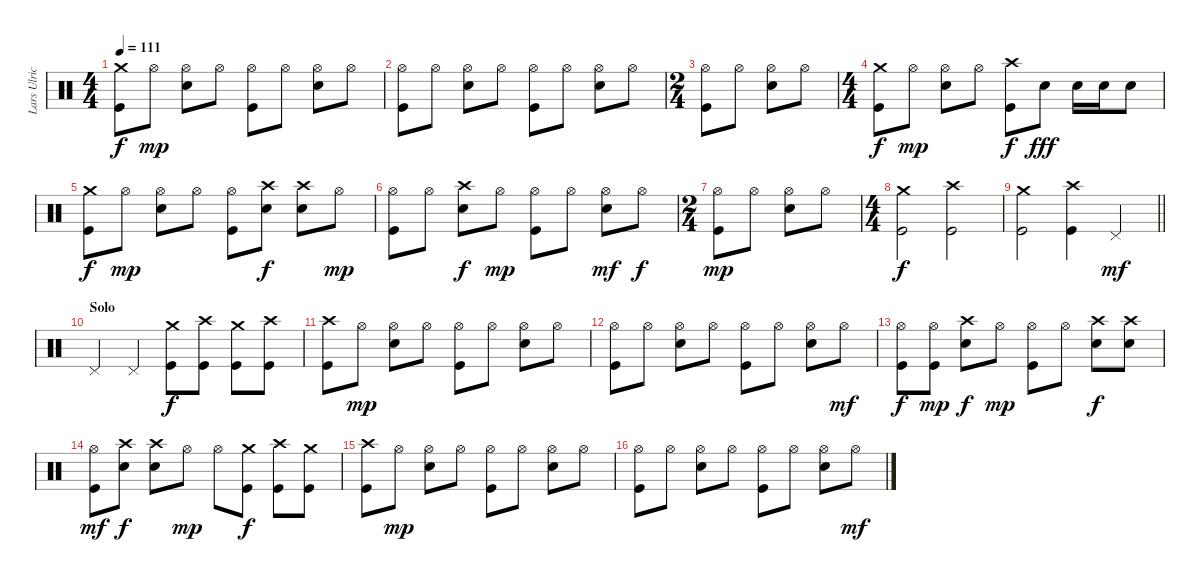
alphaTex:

\track ("Lars Ulrich (Drums)" "Lars Ulric") {instrument percussion}
\staff {score}
\articulation defaults
\ts (4 4)
\tempo 111
\clef neutral
\ks c
("Crash medium (hit)" "Kick (hit)").8{dy f} "Hi-Hat (open)".8{dy mp} ("Hi-Hat (open)" "Snare (hit) 2").8 "Hi-Hat (open)".8 ("Hi-Hat (open)" "Kick (hit)").8 "Hi-Hat (open)".8 ("Hi-Hat (open)" "Snare (hit) 2").8 "Hi-Hat (open)".8 |
("Hi-Hat (open)" "Kick (hit)").8 "Hi-Hat (open)".8 ("Hi-Hat (open)" "Snare (hit) 2").8 "Hi-Hat (open)".8 ("Hi-Hat (open)" "Kick (hit)").8 "Hi-Hat (open)".8 ("Hi-Hat (open)" "Snare (hit) 2").8 "Hi-Hat (open)".8 |
\ts (2 4)
("Hi-Hat (open)" "Kick (hit)").8 "Hi-Hat (open)".8 ("Hi-Hat (open)" "Snare (hit) 2").8 "Hi-Hat (open)".8 |
\ts (4 4)
("Crash medium (hit)" "Kick (hit)").8{dy f} "Hi-Hat (open)".8{dy mp} ("Hi-Hat (open)" "Snare (hit) 2").8 "Hi-Hat (open)".8 ("Crash high (hit)" "Kick (hit)").8{dy f} "Snare (hit) 2".8{dy fff} "Snare (hit) 2".16 "Snare (hit) 2".16 "Snare (hit) 2".8 |
("Crash medium (hit)" "Kick (hit)").8{dy f} "Hi-Hat (open)".8{dy mp} ("Hi-Hat (open)" "Snare (hit) 2").8 "Hi-Hat (open)".8 ("Hi-Hat (open)" "Kick (hit)").8 ("Crash high (hit)" "Snare (hit) 2").8{dy f} ("Crash high (hit)" "Snare (hit) 2").8 "Hi-Hat (open)".8{dy mp} |
("Hi-Hat (open)" "Kick (hit)").8 "Hi-Hat (open)".8 ("Crash high (hit)" "Snare (hit) 2").8{dy f} "Hi-Hat (open)".8{dy mp} ("Hi-Hat (open)" "Kick (hit)").8 "Hi-Hat (open)".8 ("Hi-Hat (open)" "Snare (hit) 2").8{dy mf} "Hi-Hat (open)".8{dy f} |
\ts (2 4)
("Hi-Hat (open)" "Kick (hit)").8{dy mp} "Hi-Hat (open)".8 ("Hi-Hat (open)" "Snare (hit) 2").8 "Hi-Hat (open)".8 |
\ts (4 4)
("Crash medium (hit)" "Kick (hit)").2{dy f} ("Crash high (hit)" "Kick (hit)").2 |
\barLineRight lightlight
("Crash medium (hit)" "Kick (hit)").2 ("Crash high (hit)" "Kick (hit)").4 "Pedal Hi-Hat (hit)".4{dy mf} |
\section ("" "Solo")
"Pedal Hi-Hat (hit)".4 "Pedal Hi-Hat (hit)".4 ("Crash medium (hit)" "Kick (hit)").8{dy f} ("Crash high (hit)" "Kick (hit)").8 ("Crash medium (hit)" "Kick (hit)").8 ("Crash high (hit)" "Kick (hit)").8 |
("Crash high (hit)" "Kick (hit)").8 "Hi-Hat (open)".8{dy mp} ("Hi-Hat (open)" "Snare (hit) 2").8 "Hi-Hat (open)".8 ("Hi-Hat (open)" "Kick (hit)").8 "Hi-Hat (open)".8 ("Hi-Hat (open)" "Snare (hit) 2").8 "Hi-Hat (open)".8 |
("Hi-Hat (open)" "Kick (hit)").8 "Hi-Hat (open)".8 ("Hi-Hat (open)" "Snare (hit) 2").8 "Hi-Hat (open)".8 ("Hi-Hat (open)" "Kick (hit)").8 "Hi-Hat (open)".8 ("Hi-Hat (open)" "Snare (hit) 2").8 "Hi-Hat (open)".8{dy mf} |
("Hi-Hat (open)" "Kick (hit)").8{dy f} ("Hi-Hat (open)" "Kick (hit)").8{dy mp} ("Crash high (hit)" "Snare (hit) 2").8{dy f} "Hi-Hat (open)".8{dy mp} ("Hi-Hat (open)" "Kick (hit)").8 "Hi-Hat (open)".8 ("Crash high (hit)" "Snare (hit) 2").8{dy f} ("Crash high (hit)" "Snare (hit) 2").8 |
("Hi-Hat (open)" "Kick (hit)").8{dy mf} ("Crash high (hit)" "Snare (hit) 2").8{dy f} ("Crash high (hit)" "Snare (hit) 2").8 "Hi-Hat (open)".8{dy mp} "Hi-Hat (open)".8 ("Crash medium (hit)" "Kick (hit)").8{dy f} ("Crash high (hit)" "Kick (hit)").8 ("Crash medium (hit)" "Kick (hit)").8 |
("Crash high (hit)" "Kick (hit)").8 "Hi-Hat (open)".8{dy mp} ("Hi-Hat (open)" "Snare (hit) 2").8 "Hi-Hat (open)".8 ("Hi-Hat (open)" "Kick (hit)").8 "Hi-Hat (open)".8 ("Hi-Hat (open)" "Snare (hit) 2").8 "Hi-Hat (open)".8 |
("Hi-Hat (open)" "Kick (hit)").8 "Hi-Hat (open)".8 ("Hi-Hat (open)" "Snare (hit) 2").8 "Hi-Hat (open)".8 ("Hi-Hat (open)" "Kick (hit)").8 "Hi-Hat (open)".8 ("Hi-Hat (open)" "Snare (hit) 2").8 "Hi-Hat (open)".8{dy mf}
